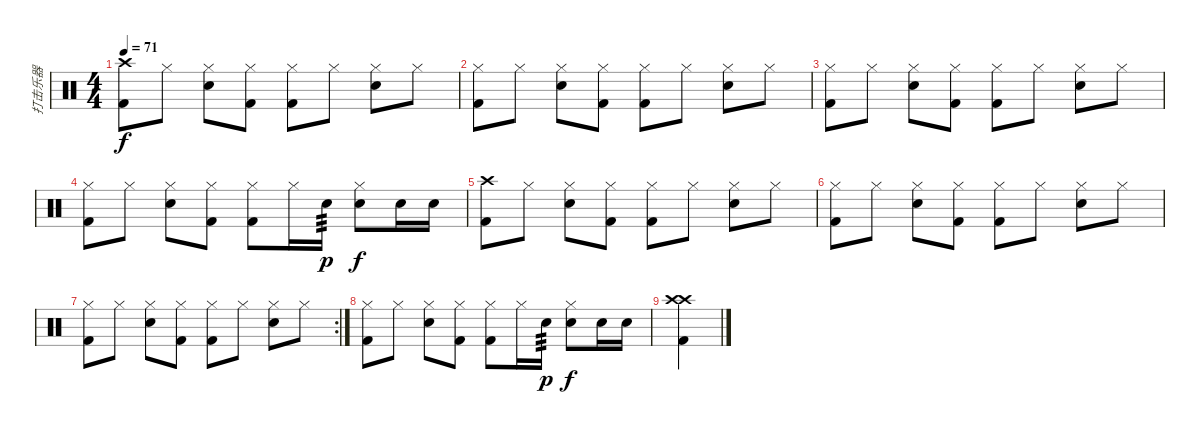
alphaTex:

\track ("打击乐器" "打击乐器") {instrument percussion}
\staff {score}
\articulation defaults
\ts (4 4)
\tempo 71
\clef neutral
\ks c
("Crash high (hit)" "Kick (hit) 2").8{dy f} "Hi-Hat (closed)".8 ("Hi-Hat (closed)" "Electric Snare (hit)").8 ("Hi-Hat (closed)" "Kick (hit) 2").8 ("Hi-Hat (closed)" "Kick (hit) 2").8 "Hi-Hat (closed)".8 ("Hi-Hat (closed)" "Electric Snare (hit)").8 "Hi-Hat (closed)".8 |
("Hi-Hat (closed)" "Kick (hit) 2").8 "Hi-Hat (closed)".8 ("Hi-Hat (closed)" "Electric Snare (hit)").8 ("Hi-Hat (closed)" "Kick (hit) 2").8 ("Hi-Hat (closed)" "Kick (hit) 2").8 "Hi-Hat (closed)".8 ("Hi-Hat (closed)" "Electric Snare (hit)").8 "Hi-Hat (closed)".8 |
("Hi-Hat (closed)" "Kick (hit) 2").8 "Hi-Hat (closed)".8 ("Hi-Hat (closed)" "Electric Snare (hit)").8 ("Hi-Hat (closed)" "Kick (hit) 2").8 ("Hi-Hat (closed)" "Kick (hit) 2").8 "Hi-Hat (closed)".8 ("Hi-Hat (closed)" "Electric Snare (hit)").8 "Hi-Hat (closed)".8 |
("Hi-Hat (closed)" "Kick (hit) 2").8 "Hi-Hat (closed)".8 ("Hi-Hat (closed)" "Electric Snare (hit)").8 ("Hi-Hat (closed)" "Kick (hit) 2").8 ("Hi-Hat (closed)" "Kick (hit) 2").8 "Hi-Hat (closed)".16 "Electric Snare (hit)".16{tp 3 dy p} ("Hi-Hat (closed)" "Electric Snare (hit)").8{dy f} "Electric Snare (hit)".16 "Electric Snare (hit)".16 |
("Crash high (hit)" "Kick (hit) 2").8 "Hi-Hat (closed)".8 ("Hi-Hat (closed)" "Electric Snare (hit)").8 ("Hi-Hat (closed)" "Kick (hit) 2").8 ("Hi-Hat (closed)" "Kick (hit) 2").8 "Hi-Hat (closed)".8 ("Hi-Hat (closed)" "Electric Snare (hit)").8 "Hi-Hat (closed)".8 |
("Hi-Hat (closed)" "Kick (hit) 2").8 "Hi-Hat (closed)".8 ("Hi-Hat (closed)" "Electric Snare (hit)").8 ("Hi-Hat (closed)" "Kick (hit) 2").8 ("Hi-Hat (closed)" "Kick (hit) 2").8 "Hi-Hat (closed)".8 ("Hi-Hat (closed)" "Electric Snare (hit)").8 "Hi-Hat (closed)".8 |
\rc 2
("Hi-Hat (closed)" "Kick (hit) 2").8 "Hi-Hat (closed)".8 ("Hi-Hat (closed)" "Electric Snare (hit)").8 ("Hi-Hat (closed)" "Kick (hit) 2").8 ("Hi-Hat (closed)" "Kick (hit) 2").8 "Hi-Hat (closed)".8 ("Hi-Hat (closed)" "Electric Snare (hit)").8 "Hi-Hat (closed)".8 |
("Hi-Hat (closed)" "Kick (hit) 2").8 "Hi-Hat (closed)".8 ("Hi-Hat (closed)" "Electric Snare (hit)").8 ("Hi-Hat (closed)" "Kick (hit) 2").8 ("Hi-Hat (closed)" "Kick (hit) 2").8 "Hi-Hat (closed)".16 "Electric Snare (hit)".16{tp 3 dy p} ("Hi-Hat (closed)" "Electric Snare (hit)").8{dy f} "Electric Snare (hit)".16 "Electric Snare (hit)".16 |
("Crash high (hit)" "Crash high (hit)" "Kick (hit) 2").4
